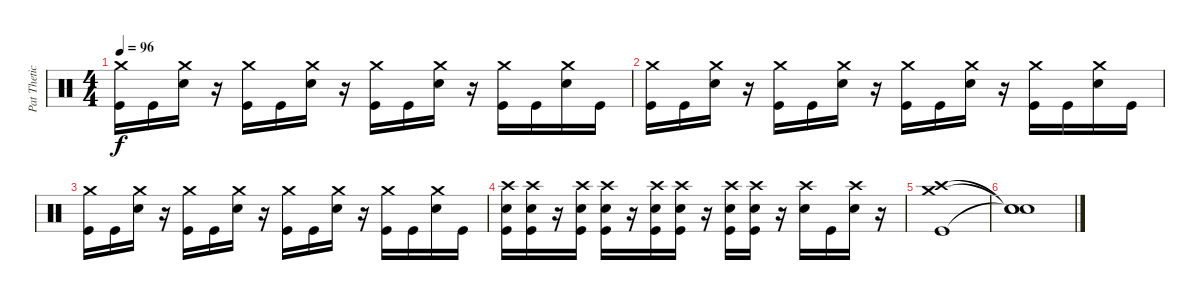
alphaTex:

\track ("Pat Thetic" "Pat Thetic") {instrument percussion}
\staff {score}
\articulation defaults
\ts (4 4)
\tempo 96
\clef neutral
\ks c
("Crash medium (hit)" "Kick (hit)").16{dy f} "Kick (hit)".16 ("Crash medium (hit)" "Electric Snare (hit)").16 r.16 ("Crash medium (hit)" "Kick (hit)").16 "Kick (hit)".16 ("Crash medium (hit)" "Electric Snare (hit)").16 r.16 ("Crash medium (hit)" "Kick (hit)").16 "Kick (hit)".16 ("Crash medium (hit)" "Electric Snare (hit)").16 r.16 ("Crash medium (hit)" "Kick (hit)").16 "Kick (hit)".16 ("Crash medium (hit)" "Electric Snare (hit)").16 "Kick (hit)".16 |
("Crash medium (hit)" "Kick (hit)").16 "Kick (hit)".16 ("Crash medium (hit)" "Electric Snare (hit)").16 r.16 ("Crash medium (hit)" "Kick (hit)").16 "Kick (hit)".16 ("Crash medium (hit)" "Electric Snare (hit)").16 r.16 ("Crash medium (hit)" "Kick (hit)").16 "Kick (hit)".16 ("Crash medium (hit)" "Electric Snare (hit)").16 r.16 ("Crash medium (hit)" "Kick (hit)").16 "Kick (hit)".16 ("Crash medium (hit)" "Electric Snare (hit)").16 "Kick (hit)".16 |
("Crash medium (hit)" "Kick (hit)").16 "Kick (hit)".16 ("Crash medium (hit)" "Electric Snare (hit)").16 r.16 ("Crash medium (hit)" "Kick (hit)").16 "Kick (hit)".16 ("Crash medium (hit)" "Electric Snare (hit)").16 r.16 ("Crash medium (hit)" "Kick (hit)").16 "Kick (hit)".16 ("Crash medium (hit)" "Electric Snare (hit)").16 r.16 ("Crash medium (hit)" "Kick (hit)").16 "Kick (hit)".16 ("Crash medium (hit)" "Electric Snare (hit)").16 "Kick (hit)".16 |
("Crash high (hit)" "Electric Snare (hit)" "Kick (hit)").16 ("Crash high (hit)" "Electric Snare (hit)" "Kick (hit)").16 r.16 ("Crash high (hit)" "Electric Snare (hit)" "Kick (hit)").16 ("Crash high (hit)" "Electric Snare (hit)" "Kick (hit)").16 r.16 ("Crash high (hit)" "Electric Snare (hit)" "Kick (hit)").16 ("Crash high (hit)" "Electric Snare (hit)" "Kick (hit)").16 r.16 ("Crash high (hit)" "Electric Snare (hit)" "Kick (hit)").16 ("Crash high (hit)" "Electric Snare (hit)" "Kick (hit)").16 r.16 ("Crash high (hit)" "Electric Snare (hit)").16 "Kick (hit)".16 ("Crash high (hit)" "Electric Snare (hit)").16 r.16 |
("Crash high (hit)" "Crash medium (hit)" "Kick (hit)").1 |
("Snare (hit)"{t} "Snare (hit)"{t} "Snare (hit)"{t}).1
